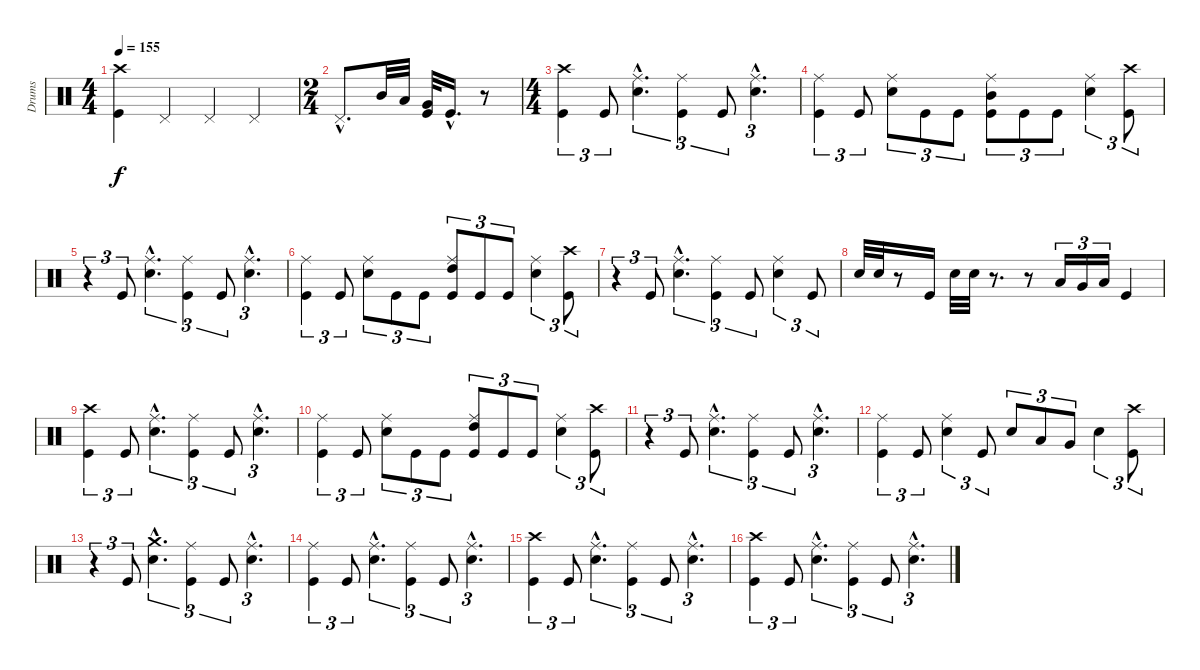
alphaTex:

\track ("Drums" "Drums") {instrument percussion}
\staff {score}
\articulation defaults
\ts (4 4)
\tempo 155
\clef neutral
\ks c
("Crash high (hit)" "Kick (hit)").4{dy f} "Pedal Hi-Hat (hit)".4 "Pedal Hi-Hat (hit)".4 "Pedal Hi-Hat (hit)".4 |
\ts (2 4)
"Pedal Hi-Hat (hit)"{hac}.8{d} "Mid Tom (hit)".32 "Low Tom (hit)".32 ("Very Low Tom (hit)" "Kick (hit)").32 "Kick (hit)"{hac}.16{d} r.8 |
\ts (4 4)
("Crash high (hit)" "Kick (hit)").4{tu (3 2)} "Kick (hit)".8{tu (3 2)} ("Ride (middle)"{hac} "Snare (hit) 2"{hac}).4{d tu (3 2)} ("Ride (middle)" "Kick (hit)").4{tu (3 2)} "Kick (hit)".8{tu (3 2)} ("Ride (middle)"{hac} "Snare (hit) 2"{hac}).4{d tu (3 2)} |
("Ride (middle)" "Kick (hit)").4{tu (3 2)} "Kick (hit)".8{tu (3 2)} ("Ride (middle)" "Snare (hit) 2").8{tu (3 2)} "Kick (hit)".8{tu (3 2)} "Kick (hit)".8{tu (3 2)} ("Ride (middle)" "Kick (hit)" "Mid Tom (hit)").8{tu (3 2)} "Kick (hit)".8{tu (3 2)} "Kick (hit)".8{tu (3 2)} ("Ride (middle)" "Snare (hit) 2").4{tu (3 2)} ("Crash high (hit)" "Kick (hit)").8{tu (3 2)} |
r.4{tu (3 2)} "Kick (hit)".8{tu (3 2)} ("Ride (middle)"{hac} "Snare (hit) 2"{hac}).4{d tu (3 2)} ("Ride (middle)" "Kick (hit)").4{tu (3 2)} "Kick (hit)".8{tu (3 2)} ("Ride (middle)"{hac} "Snare (hit) 2"{hac}).4{d tu (3 2)} |
("Ride (middle)" "Kick (hit)").4{tu (3 2)} "Kick (hit)".8{tu (3 2)} ("Ride (middle)" "Snare (hit) 2").8{tu (3 2)} "Kick (hit)".8{tu (3 2)} "Kick (hit)".8{tu (3 2)} ("Ride (middle)" "Kick (hit)" "High Tom (hit)").8{tu (3 2)} "Kick (hit)".8{tu (3 2)} "Kick (hit)".8{tu (3 2)} ("Ride (middle)" "Snare (hit) 2").4{tu (3 2)} ("Crash high (hit)" "Kick (hit)").8{tu (3 2)} |
r.4{tu (3 2)} "Kick (hit)".8{tu (3 2)} ("Ride (middle)"{hac} "Snare (hit) 2"{hac}).4{d tu (3 2)} ("Ride (middle)" "Kick (hit)").4{tu (3 2)} "Kick (hit)".8{tu (3 2)} ("Ride (middle)" "Snare (hit) 2").4{tu (3 2)} "Kick (hit)".8{tu (3 2)} |
"Snare (hit) 2".32 "Snare (hit) 2".32 r.8 "Kick (hit)".16 "Snare (hit) 2".32 "Snare (hit) 2".32 r.8{d} r.8 "Low Tom (hit)".16{tu (3 2)} "Very Low Tom (hit)".16{tu (3 2)} "Low Floor Tom (hit)".16{tu (3 2)} "Kick (hit)".4 |
("Crash high (hit)" "Kick (hit)").4{tu (3 2)} "Kick (hit)".8{tu (3 2)} ("Ride (middle)"{hac} "Snare (hit) 2"{hac}).4{d tu (3 2)} ("Ride (middle)" "Kick (hit)").4{tu (3 2)} "Kick (hit)".8{tu (3 2)} ("Ride (middle)"{hac} "Snare (hit) 2"{hac}).4{d tu (3 2)} |
("Ride (middle)" "Kick (hit)").4{tu (3 2)} "Kick (hit)".8{tu (3 2)} ("Ride (middle)" "Snare (hit) 2").8{tu (3 2)} "Kick (hit)".8{tu (3 2)} "Kick (hit)".8{tu (3 2)} ("Ride (middle)" "Kick (hit)" "High Tom (hit)").8{tu (3 2)} "Kick (hit)".8{tu (3 2)} "Kick (hit)".8{tu (3 2)} ("Ride (middle)" "Snare (hit) 2").4{tu (3 2)} ("Crash high (hit)" "Kick (hit)").8{tu (3 2)} |
r.4{tu (3 2)} "Kick (hit)".8{tu (3 2)} ("Ride (middle)"{hac} "Snare (hit) 2"{hac}).4{d tu (3 2)} ("Ride (middle)" "Kick (hit)").4{tu (3 2)} "Kick (hit)".8{tu (3 2)} ("Ride (middle)"{hac} "Snare (hit) 2"{hac}).4{d tu (3 2)} |
("Ride (middle)" "Kick (hit)").4{tu (3 2)} "Kick (hit)".8{tu (3 2)} ("Ride (middle)" "Snare (hit) 2").4{tu (3 2)} "Kick (hit)".8{tu (3 2)} "Snare (hit) 2".8{tu (3 2)} "Low Tom (hit)".8{tu (3 2)} "Very Low Tom (hit)".8{tu (3 2)} "Snare (hit) 2".4{tu (3 2)} ("Crash high (hit)" "Kick (hit)").8{tu (3 2)} |
r.4{tu (3 2)} "Kick (hit)".8{tu (3 2)} ("Crash medium (hit)"{hac} "Snare (hit) 2"{hac}).4{d tu (3 2)} ("Ride (middle)" "Kick (hit)").4{tu (3 2)} "Kick (hit)".8{tu (3 2)} ("Ride (middle)"{hac} "Snare (hit) 2"{hac}).4{d tu (3 2)} |
("Ride (middle)" "Kick (hit)").4{tu (3 2)} "Kick (hit)".8{tu (3 2)} ("Ride (middle)"{hac} "Snare (hit) 2"{hac}).4{d tu (3 2)} ("Ride (middle)" "Kick (hit)").4{tu (3 2)} "Kick (hit)".8{tu (3 2)} ("Ride (middle)"{hac} "Snare (hit) 2"{hac}).4{d tu (3 2)} |
("Crash high (hit)" "Kick (hit)").4{tu (3 2)} "Kick (hit)".8{tu (3 2)} ("Ride (middle)"{hac} "Snare (hit) 2"{hac}).4{d tu (3 2)} ("Ride (middle)" "Kick (hit)").4{tu (3 2)} "Kick (hit)".8{tu (3 2)} ("Ride (middle)"{hac} "Snare (hit) 2"{hac}).4{d tu (3 2)} |
("Crash high (hit)" "Kick (hit)").4{tu (3 2)} "Kick (hit)".8{tu (3 2)} ("Ride (middle)"{hac} "Snare (hit) 2"{hac}).4{d tu (3 2)} ("Ride (middle)" "Kick (hit)").4{tu (3 2)} "Kick (hit)".8{tu (3 2)} ("Ride (middle)"{hac} "Snare (hit) 2"{hac}).4{d tu (3 2)}
